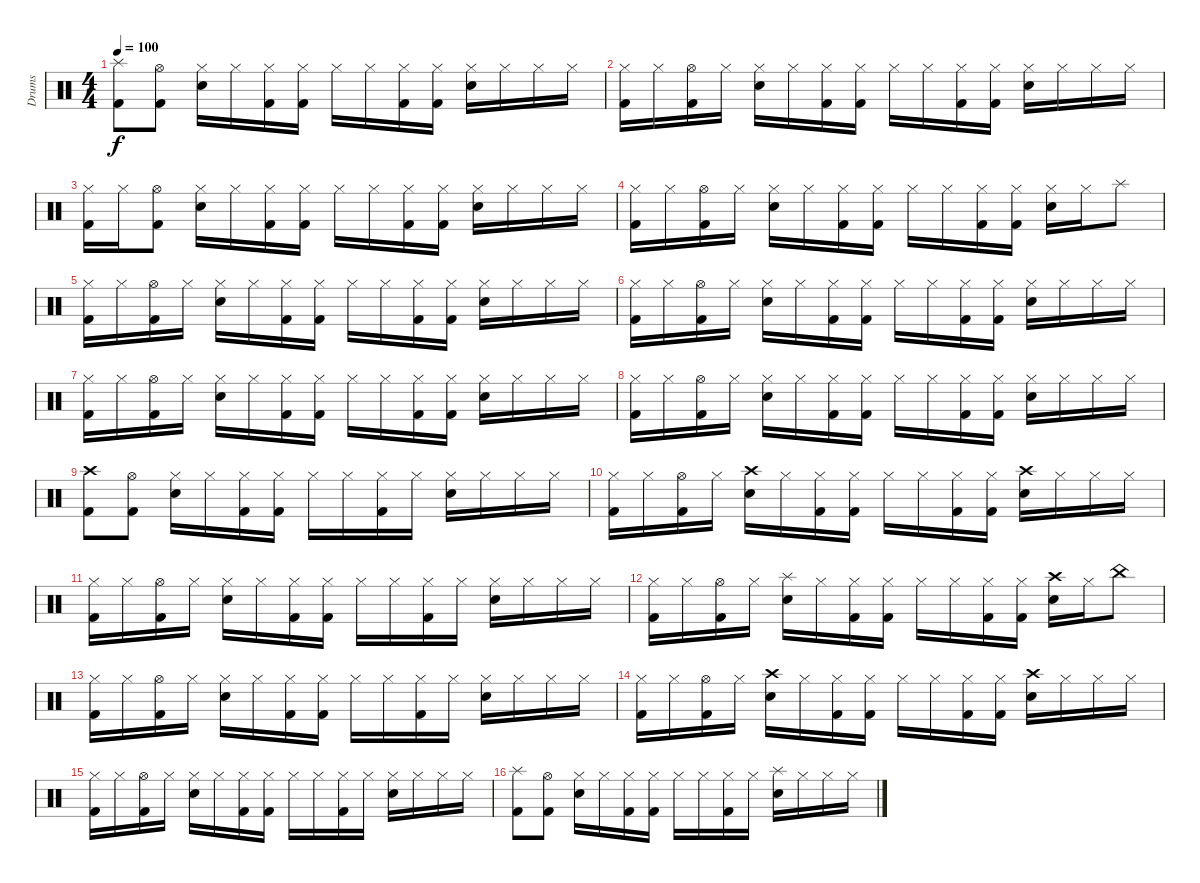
\track ("Drums" "Drums") {instrument percussion}
\staff {score}
\articulation defaults
\ts (4 4)
\tempo 100
\clef neutral
\ks c
("Splash (hit)"{t} "Kick (hit) 2").8{dy f} ("Hi-Hat (open)" "Kick (hit) 2").8 ("Hi-Hat (closed)" "Snare (hit) 2").16 "Hi-Hat (closed)".16 ("Hi-Hat (closed)" "Kick (hit) 2").16 ("Hi-Hat (closed)" "Kick (hit) 2").16 "Hi-Hat (closed)".16 "Hi-Hat (closed)".16 ("Hi-Hat (closed)" "Kick (hit) 2").16 ("Hi-Hat (closed)" "Kick (hit) 2").16 ("Hi-Hat (closed)" "Snare (hit) 2").16 "Hi-Hat (closed)".16 "Hi-Hat (closed)".16 "Hi-Hat (closed)".16 |
("Hi-Hat (closed)" "Kick (hit) 2").16 "Hi-Hat (closed)".16 ("Hi-Hat (open)" "Kick (hit) 2").16 "Hi-Hat (closed)".16 ("Hi-Hat (closed)" "Snare (hit) 2").16 "Hi-Hat (closed)".16 ("Hi-Hat (closed)" "Kick (hit) 2").16 ("Hi-Hat (closed)" "Kick (hit) 2").16 "Hi-Hat (closed)".16 "Hi-Hat (closed)".16 ("Hi-Hat (closed)" "Kick (hit) 2").16 ("Hi-Hat (closed)" "Kick (hit) 2").16 ("Hi-Hat (closed)" "Snare (hit) 2").16 "Hi-Hat (closed)".16 "Hi-Hat (closed)".16 "Hi-Hat (closed)".16 |
("Hi-Hat (closed)" "Kick (hit) 2").16 "Hi-Hat (closed)".16 ("Hi-Hat (open)" "Kick (hit) 2").8 ("Hi-Hat (closed)" "Snare (hit) 2").16 "Hi-Hat (closed)".16 ("Hi-Hat (closed)" "Kick (hit) 2").16 ("Hi-Hat (closed)" "Kick (hit) 2").16 "Hi-Hat (closed)".16 "Hi-Hat (closed)".16 ("Hi-Hat (closed)" "Kick (hit) 2").16 ("Hi-Hat (closed)" "Kick (hit) 2").16 ("Hi-Hat (closed)" "Snare (hit) 2").16 "Hi-Hat (closed)".16 "Hi-Hat (closed)".16 "Hi-Hat (closed)".16 |
("Hi-Hat (closed)" "Kick (hit) 2").16 "Hi-Hat (closed)".16 ("Hi-Hat (open)" "Kick (hit) 2").16 "Hi-Hat (closed)".16 ("Hi-Hat (closed)" "Snare (hit) 2").16 "Hi-Hat (closed)".16 ("Hi-Hat (closed)" "Kick (hit) 2").16 ("Hi-Hat (closed)" "Kick (hit) 2").16 "Hi-Hat (closed)".16 "Hi-Hat (closed)".16 ("Hi-Hat (closed)" "Kick (hit) 2").16 ("Hi-Hat (closed)" "Kick (hit) 2").16 ("Hi-Hat (closed)" "Snare (hit) 2").16 "Hi-Hat (closed)".16 "Splash (hit)".8 |
("Hi-Hat (closed)" "Kick (hit) 2").16 "Hi-Hat (closed)".16 ("Hi-Hat (open)" "Kick (hit) 2").16 "Hi-Hat (closed)".16 ("Hi-Hat (closed)" "Snare (hit) 2").16 "Hi-Hat (closed)".16 ("Hi-Hat (closed)" "Kick (hit) 2").16 ("Hi-Hat (closed)" "Kick (hit) 2").16 "Hi-Hat (closed)".16 "Hi-Hat (closed)".16 ("Hi-Hat (closed)" "Kick (hit) 2").16 ("Hi-Hat (closed)" "Kick (hit) 2").16 ("Hi-Hat (closed)" "Snare (hit) 2").16 "Hi-Hat (closed)".16 "Hi-Hat (closed)".16 "Hi-Hat (closed)".16 |
("Hi-Hat (closed)" "Kick (hit) 2").16 "Hi-Hat (closed)".16 ("Hi-Hat (open)" "Kick (hit) 2").16 "Hi-Hat (closed)".16 ("Hi-Hat (closed)" "Snare (hit) 2").16 "Hi-Hat (closed)".16 ("Hi-Hat (closed)" "Kick (hit) 2").16 ("Hi-Hat (closed)" "Kick (hit) 2").16 "Hi-Hat (closed)".16 "Hi-Hat (closed)".16 ("Hi-Hat (closed)" "Kick (hit) 2").16 ("Hi-Hat (closed)" "Kick (hit) 2").16 ("Hi-Hat (closed)" "Snare (hit) 2").16 "Hi-Hat (closed)".16 "Hi-Hat (closed)".16 "Hi-Hat (closed)".16 |
("Hi-Hat (closed)" "Kick (hit) 2").16 "Hi-Hat (closed)".16 ("Hi-Hat (open)" "Kick (hit) 2").16 "Hi-Hat (closed)".16 ("Hi-Hat (closed)" "Snare (hit) 2").16 "Hi-Hat (closed)".16 ("Hi-Hat (closed)" "Kick (hit) 2").16 ("Hi-Hat (closed)" "Kick (hit) 2").16 "Hi-Hat (closed)".16 "Hi-Hat (closed)".16 ("Hi-Hat (closed)" "Kick (hit) 2").16 ("Hi-Hat (closed)" "Kick (hit) 2").16 ("Hi-Hat (closed)" "Snare (hit) 2").16 "Hi-Hat (closed)".16 "Hi-Hat (closed)".16 "Hi-Hat (closed)".16 |
("Hi-Hat (closed)" "Kick (hit) 2").16 "Hi-Hat (closed)".16 ("Hi-Hat (open)" "Kick (hit) 2").16 "Hi-Hat (closed)".16 ("Hi-Hat (closed)" "Snare (hit) 2").16 "Hi-Hat (closed)".16 ("Hi-Hat (closed)" "Kick (hit) 2").16 ("Hi-Hat (closed)" "Kick (hit) 2").16 "Hi-Hat (closed)".16 "Hi-Hat (closed)".16 ("Hi-Hat (closed)" "Kick (hit) 2").16 ("Hi-Hat (closed)" "Kick (hit) 2").16 ("Hi-Hat (closed)" "Snare (hit) 2").16 "Hi-Hat (closed)".16 "Hi-Hat (closed)".16 "Hi-Hat (closed)".16 |
("Crash high (hit)" "Kick (hit) 2").8 ("Hi-Hat (open)" "Kick (hit) 2").8 ("Hi-Hat (closed)" "Snare (hit) 2").16 "Hi-Hat (closed)".16 ("Hi-Hat (closed)" "Kick (hit) 2").16 ("Hi-Hat (closed)" "Kick (hit) 2").16 "Hi-Hat (closed)".16 "Hi-Hat (closed)".16 ("Hi-Hat (closed)" "Kick (hit) 2").16 "Hi-Hat (closed)".16 ("Hi-Hat (closed)" "Snare (hit) 2").16 "Hi-Hat (closed)".16 "Hi-Hat (closed)".16 "Hi-Hat (closed)".16 |
("Hi-Hat (closed)" "Kick (hit) 2").16 "Hi-Hat (closed)".16 ("Hi-Hat (open)" "Kick (hit) 2").16 "Hi-Hat (closed)".16 ("Crash high (hit)" "Snare (hit) 2").16 "Hi-Hat (closed)".16 ("Hi-Hat (closed)" "Kick (hit) 2").16 ("Hi-Hat (closed)" "Kick (hit) 2").16 "Hi-Hat (closed)".16 "Hi-Hat (closed)".16 ("Hi-Hat (closed)" "Kick (hit) 2").16 ("Hi-Hat (closed)" "Kick (hit) 2").16 ("Crash high (hit)" "Snare (hit) 2").16 "Hi-Hat (closed)".16 "Hi-Hat (closed)".16 "Hi-Hat (closed)".16 |
("Hi-Hat (closed)" "Kick (hit) 2").16 "Hi-Hat (closed)".16 ("Hi-Hat (open)" "Kick (hit) 2").16 "Hi-Hat (closed)".16 ("Hi-Hat (closed)" "Snare (hit) 2").16 "Hi-Hat (closed)".16 ("Hi-Hat (closed)" "Kick (hit) 2").16 ("Hi-Hat (closed)" "Kick (hit) 2").16 "Hi-Hat (closed)".16 "Hi-Hat (closed)".16 ("Hi-Hat (closed)" "Kick (hit) 2").16 "Hi-Hat (closed)".16 ("Hi-Hat (closed)" "Snare (hit) 2").16 "Hi-Hat (closed)".16 "Hi-Hat (closed)".16 "Hi-Hat (closed)".16 |
("Hi-Hat (closed)" "Kick (hit) 2").16 "Hi-Hat (closed)".16 ("Hi-Hat (open)" "Kick (hit) 2").16 "Hi-Hat (closed)".16 ("Splash (hit)" "Snare (hit) 2").16 "Hi-Hat (closed)".16 ("Hi-Hat (closed)" "Kick (hit) 2").16 ("Hi-Hat (closed)" "Kick (hit) 2").16 "Hi-Hat (closed)".16 "Hi-Hat (closed)".16 ("Hi-Hat (closed)" "Kick (hit) 2").16 ("Hi-Hat (closed)" "Kick (hit) 2").16 ("Crash high (hit)" "Snare (hit) 2").16 "Hi-Hat (closed)".16 "China (hit)".8 |
("Hi-Hat (closed)" "Kick (hit) 2").16 "Hi-Hat (closed)".16 ("Hi-Hat (open)" "Kick (hit) 2").16 "Hi-Hat (closed)".16 ("Hi-Hat (closed)" "Snare (hit) 2").16 "Hi-Hat (closed)".16 ("Hi-Hat (closed)" "Kick (hit) 2").16 ("Hi-Hat (closed)" "Kick (hit) 2").16 "Hi-Hat (closed)".16 "Hi-Hat (closed)".16 ("Hi-Hat (closed)" "Kick (hit) 2").16 "Hi-Hat (closed)".16 ("Hi-Hat (closed)" "Snare (hit) 2").16 "Hi-Hat (closed)".16 "Hi-Hat (closed)".16 "Hi-Hat (closed)".16 |
("Hi-Hat (closed)" "Kick (hit) 2").16 "Hi-Hat (closed)".16 ("Hi-Hat (open)" "Kick (hit) 2").16 "Hi-Hat (closed)".16 ("Crash high (hit)" "Snare (hit) 2").16 "Hi-Hat (closed)".16 ("Hi-Hat (closed)" "Kick (hit) 2").16 ("Hi-Hat (closed)" "Kick (hit) 2").16 "Hi-Hat (closed)".16 "Hi-Hat (closed)".16 ("Hi-Hat (closed)" "Kick (hit) 2").16 ("Hi-Hat (closed)" "Kick (hit) 2").16 ("Crash high (hit)" "Snare (hit) 2").16 "Hi-Hat (closed)".16 "Hi-Hat (closed)".16 "Hi-Hat (closed)".16 |
("Hi-Hat (closed)" "Kick (hit) 2").16 "Hi-Hat (closed)".16 ("Hi-Hat (open)" "Kick (hit) 2").16 "Hi-Hat (closed)".16 ("Hi-Hat (closed)" "Snare (hit) 2").16 "Hi-Hat (closed)".16 ("Hi-Hat (closed)" "Kick (hit) 2").16 ("Hi-Hat (closed)" "Kick (hit) 2").16 "Hi-Hat (closed)".16 "Hi-Hat (closed)".16 ("Hi-Hat (closed)" "Kick (hit) 2").16 "Hi-Hat (closed)".16 ("Hi-Hat (closed)" "Snare (hit) 2").16 "Hi-Hat (closed)".16 "Hi-Hat (closed)".16 "Hi-Hat (closed)".16 |
("Splash (hit)" "Kick (hit) 2").8 ("Hi-Hat (open)" "Kick (hit) 2").8 ("Hi-Hat (closed)" "Snare (hit) 2").16 "Hi-Hat (closed)".16 ("Hi-Hat (closed)" "Kick (hit) 2").16 ("Hi-Hat (closed)" "Kick (hit) 2").16 "Hi-Hat (closed)".16 "Hi-Hat (closed)".16 ("Hi-Hat (closed)" "Kick (hit) 2").16 "Hi-Hat (closed)".16 ("Splash (hit)" "Snare (hit) 2").16 "Hi-Hat (closed)".16 "Hi-Hat (closed)".16 "Hi-Hat (closed)".16
